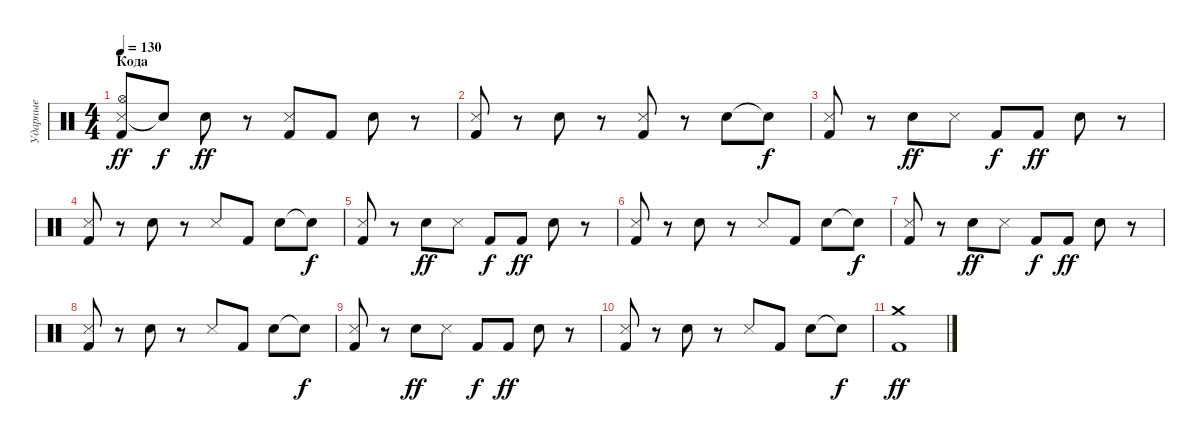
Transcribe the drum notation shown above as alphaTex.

\track ("Ударные" "Ударные") {instrument percussion}
\staff {score}
\articulation defaults
\ts (4 4)
\section ("" "Кода")
\tempo 130
\clef neutral
\ks c
("Metronome (hit)" "Hi-Hat (open)" "Kick (hit) 2").8{dy ff} "Snare (hit)"{t}.8{dy f} "Snare (hit) 2".8{dy ff} r.8 ("Metronome (hit)" "Kick (hit) 2").8 "Kick (hit) 2".8 "Snare (hit) 2".8 r.8 |
("Metronome (hit)" "Kick (hit) 2").8 r.8 "Snare (hit) 2".8 r.8 ("Metronome (hit)" "Kick (hit) 2").8 r.8 "Snare (hit) 2".8 "Snare (hit) 2"{t}.8{dy f} |
("Metronome (hit)" "Kick (hit) 2").8 r.8 "Snare (hit) 2".8{dy ff} "Metronome (hit)".8 "Kick (hit) 2".8{dy f} "Kick (hit) 2".8{dy ff} "Snare (hit) 2".8 r.8 |
("Metronome (hit)" "Kick (hit) 2").8 r.8 "Snare (hit) 2".8 r.8 "Metronome (hit)".8 "Kick (hit) 2".8 "Snare (hit) 2".8 "Snare (hit) 2"{t}.8{dy f} |
("Metronome (hit)" "Kick (hit) 2").8 r.8 "Snare (hit) 2".8{dy ff} "Metronome (hit)".8 "Kick (hit) 2".8{dy f} "Kick (hit) 2".8{dy ff} "Snare (hit) 2".8 r.8 |
("Metronome (hit)" "Kick (hit) 2").8 r.8 "Snare (hit) 2".8 r.8 "Metronome (hit)".8 "Kick (hit) 2".8 "Snare (hit) 2".8 "Snare (hit) 2"{t}.8{dy f} |
("Metronome (hit)" "Kick (hit) 2").8 r.8 "Snare (hit) 2".8{dy ff} "Metronome (hit)".8 "Kick (hit) 2".8{dy f} "Kick (hit) 2".8{dy ff} "Snare (hit) 2".8 r.8 |
("Metronome (hit)" "Kick (hit) 2").8 r.8 "Snare (hit) 2".8 r.8 "Metronome (hit)".8 "Kick (hit) 2".8 "Snare (hit) 2".8 "Snare (hit) 2"{t}.8{dy f} |
("Metronome (hit)" "Kick (hit) 2").8 r.8 "Snare (hit) 2".8{dy ff} "Metronome (hit)".8 "Kick (hit) 2".8{dy f} "Kick (hit) 2".8{dy ff} "Snare (hit) 2".8 r.8 |
("Metronome (hit)" "Kick (hit) 2").8 r.8 "Snare (hit) 2".8 r.8 "Metronome (hit)".8 "Kick (hit) 2".8 "Snare (hit) 2".8 "Snare (hit) 2"{t}.8{dy f} |
("Crash medium (hit)" "Kick (hit) 2").1{dy ff}
